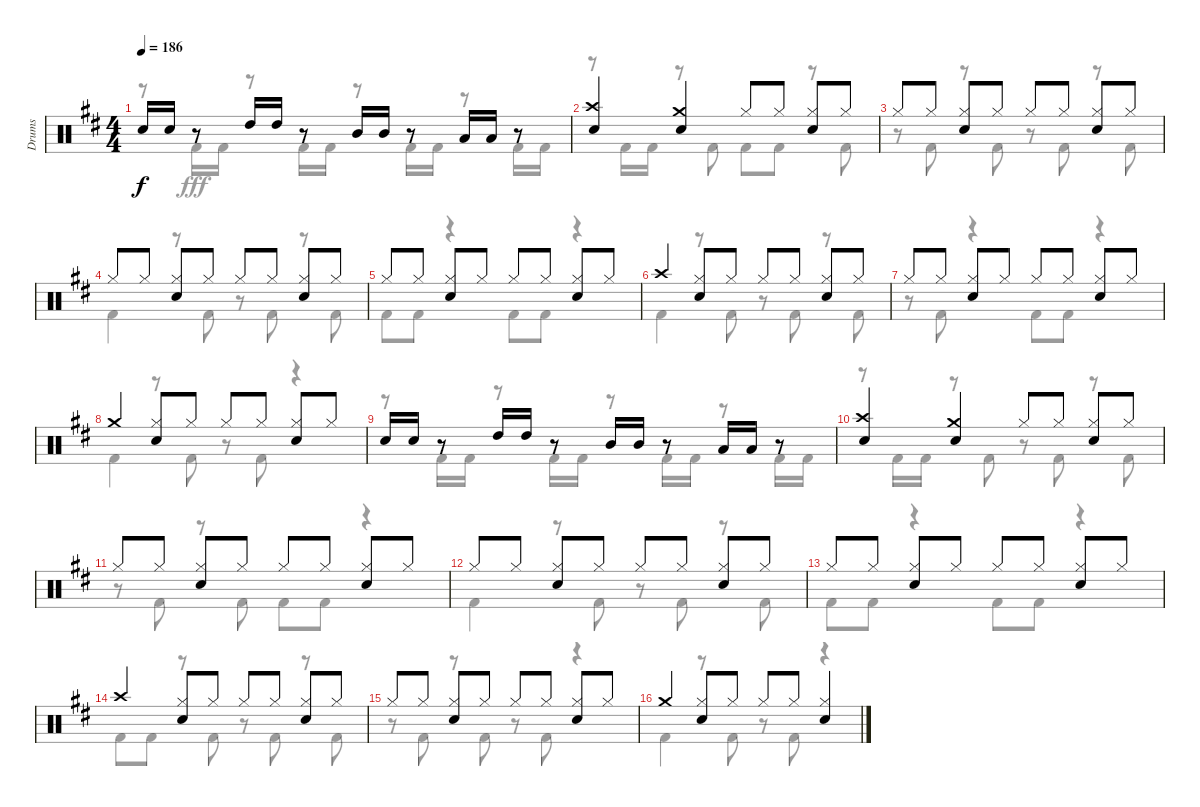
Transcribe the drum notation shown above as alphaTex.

\track ("Drums" "Drums") {instrument percussion}
\staff {score}
\articulation defaults
\voice
\ts (4 4)
\tempo 186
\clef neutral
\ks d "Snare (hit) 2".16{dy f} "Snare (hit) 2".16
r.8 "High Tom (hit)".16 "High Tom (hit)".16 r.8 "Mid Tom (hit)".16 "Mid Tom (hit)".16 r.8 "Low Tom (hit)".16 "Low Tom (hit)".16 r.8 |
("Crash high (hit)" "Snare (hit) 2").4 ("Crash medium (hit)" "Snare (hit) 2").4 "Hi-Hat (closed)".8 "Hi-Hat (closed)".8 ("Hi-Hat (closed)" "Snare (hit) 2").8 "Hi-Hat (closed)".8 |
"Hi-Hat (closed)".8 "Hi-Hat (closed)".8 ("Hi-Hat (closed)" "Snare (hit) 2").8 "Hi-Hat (closed)".8 "Hi-Hat (closed)".8 "Hi-Hat (closed)".8 ("Hi-Hat (closed)" "Snare (hit) 2").8 "Hi-Hat (closed)".8 |
"Hi-Hat (closed)".8 "Hi-Hat (closed)".8 ("Hi-Hat (closed)" "Snare (hit) 2").8 "Hi-Hat (closed)".8 "Hi-Hat (closed)".8 "Hi-Hat (closed)".8 ("Hi-Hat (closed)" "Snare (hit) 2").8 "Hi-Hat (closed)".8 |
"Hi-Hat (closed)".8 "Hi-Hat (closed)".8 ("Hi-Hat (closed)" "Snare (hit) 2").8 "Hi-Hat (closed)".8 "Hi-Hat (closed)".8 "Hi-Hat (closed)".8 ("Hi-Hat (closed)" "Snare (hit) 2").8 "Hi-Hat (closed)".8 |
"Crash high (hit)".4 ("Hi-Hat (closed)" "Snare (hit) 2").8 "Hi-Hat (closed)".8 "Hi-Hat (closed)".8 "Hi-Hat (closed)".8 ("Hi-Hat (closed)" "Snare (hit) 2").8 "Hi-Hat (closed)".8 |
"Hi-Hat (closed)".8 "Hi-Hat (closed)".8 ("Hi-Hat (closed)" "Snare (hit) 2").8 "Hi-Hat (closed)".8 "Hi-Hat (closed)".8 "Hi-Hat (closed)".8 ("Hi-Hat (closed)" "Snare (hit) 2").8 "Hi-Hat (closed)".8 |
"Crash medium (hit)".4 ("Hi-Hat (closed)" "Snare (hit) 2").8 "Hi-Hat (closed)".8 "Hi-Hat (closed)".8 "Hi-Hat (closed)".8 ("Hi-Hat (closed)" "Snare (hit) 2").8 "Hi-Hat (closed)".8 |
"Snare (hit) 2".16 "Snare (hit) 2".16 r.8 "High Tom (hit)".16 "High Tom (hit)".16 r.8 "Mid Tom (hit)".16 "Mid Tom (hit)".16 r.8 "Low Tom (hit)".16 "Low Tom (hit)".16 r.8 |
("Crash high (hit)" "Snare (hit) 2").4 ("Crash medium (hit)" "Snare (hit) 2").4 "Hi-Hat (closed)".8 "Hi-Hat (closed)".8 ("Hi-Hat (closed)" "Snare (hit) 2").8 "Hi-Hat (closed)".8 |
"Hi-Hat (closed)".8 "Hi-Hat (closed)".8 ("Hi-Hat (closed)" "Snare (hit) 2").8 "Hi-Hat (closed)".8 "Hi-Hat (closed)".8 "Hi-Hat (closed)".8 ("Hi-Hat (closed)" "Snare (hit) 2").8 "Hi-Hat (closed)".8 |
"Hi-Hat (closed)".8 "Hi-Hat (closed)".8 ("Hi-Hat (closed)" "Snare (hit) 2").8 "Hi-Hat (closed)".8 "Hi-Hat (closed)".8 "Hi-Hat (closed)".8 ("Hi-Hat (closed)" "Snare (hit) 2").8 "Hi-Hat (closed)".8 |
"Hi-Hat (closed)".8 "Hi-Hat (closed)".8 ("Hi-Hat (closed)" "Snare (hit) 2").8 "Hi-Hat (closed)".8 "Hi-Hat (closed)".8 "Hi-Hat (closed)".8 ("Hi-Hat (closed)" "Snare (hit) 2").8 "Hi-Hat (closed)".8 |
"Crash high (hit)".4 ("Hi-Hat (closed)" "Snare (hit) 2").8 "Hi-Hat (closed)".8 "Hi-Hat (closed)".8 "Hi-Hat (closed)".8 ("Hi-Hat (closed)" "Snare (hit) 2").8 "Hi-Hat (closed)".8 |
"Hi-Hat (closed)".8 "Hi-Hat (closed)".8 ("Hi-Hat (closed)" "Snare (hit) 2").8 "Hi-Hat (closed)".8 "Hi-Hat (closed)".8 "Hi-Hat (closed)".8 ("Hi-Hat (closed)" "Snare (hit) 2").8 "Hi-Hat (closed)".8 |
"Crash medium (hit)".4 ("Hi-Hat (closed)" "Snare (hit) 2").8 "Hi-Hat (closed)".8 "Hi-Hat (closed)".8 "Hi-Hat (closed)".8 ("Hi-Hat (closed)" "Snare (hit) 2").4
\voice
\clef neutral
\ottava regular
\simile none
\ks d
r.8{dy fff} "Kick (hit) 2".16 "Kick (hit) 2".16 r.8 "Kick (hit) 2".16 "Kick (hit) 2".16 r.8 "Kick (hit) 2".16 "Kick (hit) 2".16 r.8 "Kick (hit) 2".16 "Kick (hit) 2".16 |
r.8 "Kick (hit) 2".16 "Kick (hit) 2".16 r.8 "Kick (hit) 2".8 "Kick (hit) 2".8 "Kick (hit) 2".8 r.8 "Kick (hit) 2".8 |
r.8 "Kick (hit) 2".8 r.8 "Kick (hit) 2".8 r.8 "Kick (hit) 2".8 r.8 "Kick (hit) 2".8 |
"Kick (hit) 2".4 r.8 "Kick (hit) 2".8 r.8 "Kick (hit) 2".8 r.8 "Kick (hit) 2".8 |
"Kick (hit) 2".8 "Kick (hit) 2".8 r.4 "Kick (hit) 2".8 "Kick (hit) 2".8 r.4 |
"Kick (hit) 2".4 r.8 "Kick (hit) 2".8 r.8 "Kick (hit) 2".8 r.8 "Kick (hit) 2".8 |
r.8 "Kick (hit) 2".8 r.4 "Kick (hit) 2".8 "Kick (hit) 2".8 r.4 |
"Kick (hit) 2".4 r.8 "Kick (hit) 2".8 r.8 "Kick (hit) 2".8 r.4 |
r.8 "Kick (hit) 2".16 "Kick (hit) 2".16 r.8 "Kick (hit) 2".16 "Kick (hit) 2".16 r.8 "Kick (hit) 2".16 "Kick (hit) 2".16 r.8 "Kick (hit) 2".16 "Kick (hit) 2".16 |
r.8 "Kick (hit) 2".16 "Kick (hit) 2".16 r.8 "Kick (hit) 2".8 r.8 "Kick (hit) 2".8 r.8 "Kick (hit) 2".8 |
r.8 "Kick (hit) 2".8 r.8 "Kick (hit) 2".8 "Kick (hit) 2".8 "Kick (hit) 2".8 r.4 |
"Kick (hit) 2".4 r.8 "Kick (hit) 2".8 r.8 "Kick (hit) 2".8 r.8 "Kick (hit) 2".8 |
"Kick (hit) 2".8 "Kick (hit) 2".8 r.4 "Kick (hit) 2".8 "Kick (hit) 2".8 r.4 |
"Kick (hit) 2".8 "Kick (hit) 2".8 r.8 "Kick (hit) 2".8 r.8 "Kick (hit) 2".8 r.8 "Kick (hit) 2".8 |
r.8 "Kick (hit) 2".8 r.8 "Kick (hit) 2".8 r.8 "Kick (hit) 2".8 r.4 |
"Kick (hit) 2".4 r.8 "Kick (hit) 2".8 r.8 "Kick (hit) 2".8 r.4
